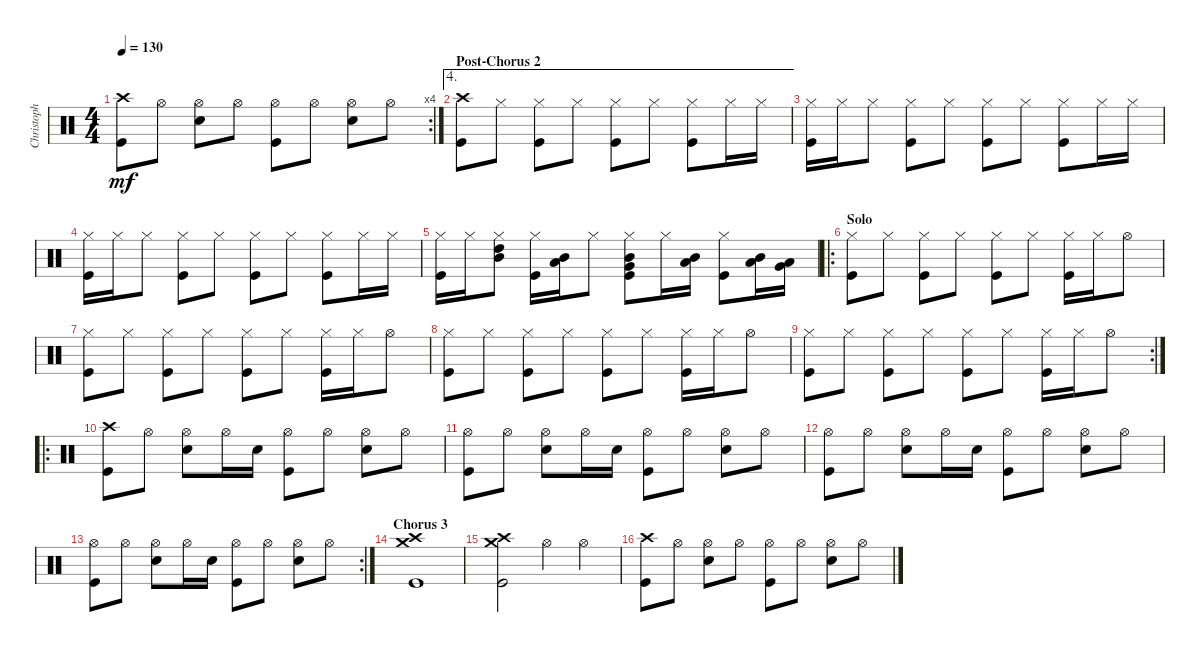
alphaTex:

\track ("Christoph Schneider" "Christoph ") {instrument percussion}
\staff {score}
\articulation defaults
\rc 4
\ts (4 4)
\tempo 130
\clef neutral
\ks c
("Crash high (hit)" "Kick (hit)").8{dy mf} "Hi-Hat (open)".8 ("Hi-Hat (open)" "Snare (hit) 2").8 "Hi-Hat (open)".8 ("Hi-Hat (open)" "Kick (hit)").8 "Hi-Hat (open)".8 ("Hi-Hat (open)" "Snare (hit) 2").8 "Hi-Hat (open)".8 |
\ae 4
\section ("" "Post-Chorus 2")
("Crash high (hit)" "Kick (hit)").8 "Hi-Hat (closed)".8 ("Hi-Hat (closed)" "Kick (hit)").8 "Hi-Hat (closed)".8 ("Hi-Hat (closed)" "Kick (hit)").8 "Hi-Hat (closed)".8 ("Hi-Hat (closed)" "Kick (hit)").8 "Hi-Hat (closed)".16 "Hi-Hat (closed)".16 |
("Hi-Hat (closed)" "Kick (hit)").16 "Hi-Hat (closed)".16 "Hi-Hat (closed)".8 ("Hi-Hat (closed)" "Kick (hit)").8 "Hi-Hat (closed)".8 ("Hi-Hat (closed)" "Kick (hit)").8 "Hi-Hat (closed)".8 ("Hi-Hat (closed)" "Kick (hit)").8 "Hi-Hat (closed)".16 "Hi-Hat (closed)".16 |
("Hi-Hat (closed)" "Kick (hit)").16 "Hi-Hat (closed)".16 "Hi-Hat (closed)".8 ("Hi-Hat (closed)" "Kick (hit)").8 "Hi-Hat (closed)".8 ("Hi-Hat (closed)" "Kick (hit)").8 "Hi-Hat (closed)".8 ("Hi-Hat (closed)" "Kick (hit)").8 "Hi-Hat (closed)".16 "Hi-Hat (closed)".16 |
("Hi-Hat (closed)" "Kick (hit)").16 "Hi-Hat (closed)".16 ("Hi-Hat (closed)" "High Tom (hit)" "Mid Tom (hit)").8 ("Hi-Hat (closed)" "Kick (hit)").16 ("Mid Tom (hit)" "Low Tom (hit)").16 "Hi-Hat (closed)".8 ("Hi-Hat (closed)" "Mid Tom (hit)" "Very Low Tom (hit)" "Kick (hit)").8 "Hi-Hat (closed)".16 ("Mid Tom (hit)" "Low Floor Tom (hit)").16 ("Hi-Hat (closed)" "Kick (hit)").8 ("Mid Tom (hit)" "Low Floor Tom (hit)").16 ("Low Tom (hit)" "Very Low Tom (hit)").16 |
\ro
\section ("" "Solo")
("Hi-Hat (closed)" "Kick (hit)").8 "Hi-Hat (closed)".8 ("Hi-Hat (closed)" "Kick (hit)").8 "Hi-Hat (closed)".8 ("Hi-Hat (closed)" "Kick (hit)").8 "Hi-Hat (closed)".8 ("Hi-Hat (closed)" "Kick (hit)").16 "Hi-Hat (closed)".16 "Hi-Hat (open)".8 |
("Hi-Hat (closed)" "Kick (hit)").8 "Hi-Hat (closed)".8 ("Hi-Hat (closed)" "Kick (hit)").8 "Hi-Hat (closed)".8 ("Hi-Hat (closed)" "Kick (hit)").8 "Hi-Hat (closed)".8 ("Hi-Hat (closed)" "Kick (hit)").16 "Hi-Hat (closed)".16 "Hi-Hat (open)".8 |
("Hi-Hat (closed)" "Kick (hit)").8 "Hi-Hat (closed)".8 ("Hi-Hat (closed)" "Kick (hit)").8 "Hi-Hat (closed)".8 ("Hi-Hat (closed)" "Kick (hit)").8 "Hi-Hat (closed)".8 ("Hi-Hat (closed)" "Kick (hit)").16 "Hi-Hat (closed)".16 "Hi-Hat (open)".8 |
\rc 2
("Hi-Hat (closed)" "Kick (hit)").8 "Hi-Hat (closed)".8 ("Hi-Hat (closed)" "Kick (hit)").8 "Hi-Hat (closed)".8 ("Hi-Hat (closed)" "Kick (hit)").8 "Hi-Hat (closed)".8 ("Hi-Hat (closed)" "Kick (hit)").16 "Hi-Hat (closed)".16 "Hi-Hat (open)".8 |
\ro
("Crash high (hit)" "Kick (hit)").8 "Hi-Hat (open)".8 ("Hi-Hat (open)" "Snare (hit) 2").8 "Hi-Hat (open)".16 "Snare (hit) 2".16 ("Hi-Hat (open)" "Kick (hit)").8 "Hi-Hat (open)".8 ("Hi-Hat (open)" "Snare (hit) 2").8 "Hi-Hat (open)".8 |
("Hi-Hat (open)" "Kick (hit)").8 "Hi-Hat (open)".8 ("Hi-Hat (open)" "Snare (hit) 2").8 "Hi-Hat (open)".16 "Snare (hit) 2".16 ("Hi-Hat (open)" "Kick (hit)").8 "Hi-Hat (open)".8 ("Hi-Hat (open)" "Snare (hit) 2").8 "Hi-Hat (open)".8 |
("Hi-Hat (open)" "Kick (hit)").8 "Hi-Hat (open)".8 ("Hi-Hat (open)" "Snare (hit) 2").8 "Hi-Hat (open)".16 "Snare (hit) 2".16 ("Hi-Hat (open)" "Kick (hit)").8 "Hi-Hat (open)".8 ("Hi-Hat (open)" "Snare (hit) 2").8 "Hi-Hat (open)".8 |
\rc 2
("Hi-Hat (open)" "Kick (hit)").8 "Hi-Hat (open)".8 ("Hi-Hat (open)" "Snare (hit) 2").8 "Hi-Hat (open)".16 "Snare (hit) 2".16 ("Hi-Hat (open)" "Kick (hit)").8 "Hi-Hat (open)".8 ("Hi-Hat (open)" "Snare (hit) 2").8 "Hi-Hat (open)".8 |
\section ("" "Chorus 3")
("Crash high (hit)" "Crash medium (hit)" "Kick (hit)").1 |
("Crash high (hit)" "Crash medium (hit)" "Kick (hit)").2 "Hi-Hat (open)".4 "Hi-Hat (open)".4 |
("Crash high (hit)" "Kick (hit)").8 "Hi-Hat (open)".8 ("Hi-Hat (open)" "Snare (hit) 2").8 "Hi-Hat (open)".8 ("Hi-Hat (open)" "Kick (hit)").8 "Hi-Hat (open)".8 ("Hi-Hat (open)" "Snare (hit) 2").8 "Hi-Hat (open)".8
